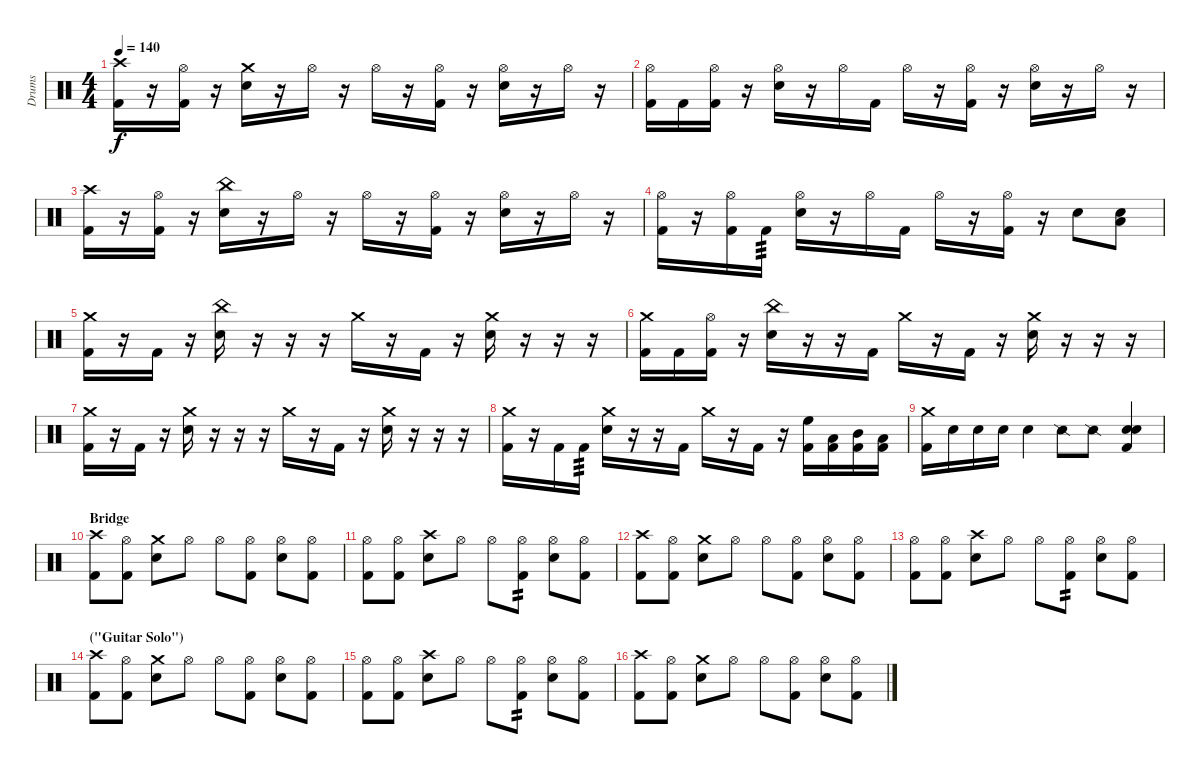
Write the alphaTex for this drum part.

\track ("Drums" "Drums") {instrument percussion}
\staff {score}
\articulation defaults
\ts (4 4)
\tempo 140
\clef neutral
\ks c
("Crash high (hit)" "Kick (hit) 2").16{dy f} r.16 ("Hi-Hat (open)" "Kick (hit) 2").16 r.16 ("Crash medium (hit)" "Snare (hit) 2").16 r.16 "Hi-Hat (open)".16 r.16 "Hi-Hat (open)".16 r.16 ("Hi-Hat (open)" "Kick (hit) 2").16 r.16 ("Hi-Hat (open)" "Snare (hit) 2").16 r.16 "Hi-Hat (open)".16 r.16 |
("Hi-Hat (open)" "Kick (hit) 2").16 "Kick (hit) 2".16 ("Hi-Hat (open)" "Kick (hit) 2").16 r.16 ("Hi-Hat (open)" "Snare (hit) 2").16 r.16 "Hi-Hat (open)".16 "Kick (hit) 2".16 "Hi-Hat (open)".16 r.16 ("Hi-Hat (open)" "Kick (hit) 2").16 r.16 ("Hi-Hat (open)" "Snare (hit) 2").16 r.16 "Hi-Hat (open)".16 r.16 |
("Crash high (hit)" "Kick (hit) 2").16 r.16 ("Hi-Hat (open)" "Kick (hit) 2").16 r.16 ("China (hit)" "Snare (hit) 2").16 r.16 "Hi-Hat (open)".16 r.16 "Hi-Hat (open)".16 r.16 ("Hi-Hat (open)" "Kick (hit) 2").16 r.16 ("Hi-Hat (open)" "Snare (hit) 2").16 r.16 "Hi-Hat (open)".16 r.16 |
("Hi-Hat (open)" "Kick (hit) 2").16 r.16 ("Hi-Hat (open)" "Kick (hit) 2").16 "Kick (hit) 2".16{tp 3} ("Hi-Hat (open)" "Snare (hit) 2").16 r.16 "Hi-Hat (open)".16 "Kick (hit) 2".16 "Hi-Hat (open)".16 r.16 ("Hi-Hat (open)" "Kick (hit) 2").16 r.16 "Snare (hit) 2".8 ("Snare (hit) 2" "Low Tom (hit)").8 |
("Crash medium (hit)" "Kick (hit) 2").16 r.16 "Kick (hit) 2".16 r.16 ("China (hit)" "Snare (hit) 2").16 r.16 r.16 r.16 "Crash medium (hit)".16 r.16 "Kick (hit) 2".16 r.16 ("Crash medium (hit)" "Snare (hit) 2").16 r.16 r.16 r.16 |
("Crash medium (hit)" "Kick (hit) 2").16 "Kick (hit) 2".16 ("Hi-Hat (open)" "Kick (hit) 2").16 r.16 ("China (hit)" "Snare (hit) 2").16 r.16 r.16 "Kick (hit) 2".16 "Crash medium (hit)".16 r.16 "Kick (hit) 2".16 r.16 ("Crash medium (hit)" "Snare (hit) 2").16 r.16 r.16 r.16 |
("Crash medium (hit)" "Kick (hit) 2").16 r.16 "Kick (hit) 2".16 r.16 ("Crash medium (hit)" "Snare (hit) 2").16 r.16 r.16 r.16 "Crash medium (hit)".16 r.16 "Kick (hit) 2".16 r.16 ("Crash medium (hit)" "Snare (hit) 2").16 r.16 r.16 r.16 |
("Crash medium (hit)" "Kick (hit) 2").16 r.16 "Kick (hit) 2".16 "Kick (hit) 2".16{tp 3} ("Crash medium (hit)" "Snare (hit) 2").16 r.16 r.16 "Kick (hit) 2".16 "Crash medium (hit)".16 r.16 "Kick (hit) 2".16 r.16 ("High Floor Tom (hit)" "Kick (hit) 2").16 ("Low Tom (hit)" "Kick (hit) 2").16 ("Mid Tom (hit)" "Kick (hit) 2").16 ("Low Floor Tom (hit)" "Kick (hit) 2").16 |
("Crash medium (hit)" "Kick (hit) 2").16 "Snare (hit) 2".16 "Snare (hit) 2".16 "Snare (hit) 2".16 "Snare (hit) 2".4 "Snare (side stick) 2".8 "Snare (side stick) 2".8 ("Snare (hit) 2" "Snare (hit) 2" "Kick (hit) 2").4 |
\section ("" "Bridge")
("Crash high (hit)" "Kick (hit) 2").8 ("Hi-Hat (open)" "Kick (hit) 2").8 ("Crash medium (hit)" "Snare (hit) 2").8 "Hi-Hat (open)".8 "Hi-Hat (open)".8 ("Hi-Hat (open)" "Kick (hit) 2").8 ("Hi-Hat (open)" "Snare (hit) 2").8 ("Hi-Hat (open)" "Kick (hit) 2").8 |
("Hi-Hat (open)" "Kick (hit) 2").8 ("Hi-Hat (open)" "Kick (hit) 2").8 ("Crash high (hit)" "Snare (hit) 2").8 "Hi-Hat (open)".8 "Hi-Hat (open)".8 ("Hi-Hat (open)" "Kick (hit) 2").8{tp 2} ("Hi-Hat (open)" "Snare (hit) 2").8 ("Hi-Hat (open)" "Kick (hit) 2").8 |
("Crash high (hit)" "Kick (hit) 2").8 ("Hi-Hat (open)" "Kick (hit) 2").8 ("Crash medium (hit)" "Snare (hit) 2").8 "Hi-Hat (open)".8 "Hi-Hat (open)".8 ("Hi-Hat (open)" "Kick (hit) 2").8 ("Hi-Hat (open)" "Snare (hit) 2").8 ("Hi-Hat (open)" "Kick (hit) 2").8 |
("Hi-Hat (open)" "Kick (hit) 2").8 ("Hi-Hat (open)" "Kick (hit) 2").8 ("Crash high (hit)" "Snare (hit) 2").8 "Hi-Hat (open)".8 "Hi-Hat (open)".8 ("Hi-Hat (open)" "Kick (hit) 2").8{tp 2} ("Hi-Hat (open)" "Snare (hit) 2").8 ("Hi-Hat (open)" "Kick (hit) 2").8 |
\section ("" "(\"Guitar Solo\")")
("Crash high (hit)" "Kick (hit) 2").8 ("Hi-Hat (open)" "Kick (hit) 2").8 ("Crash medium (hit)" "Snare (hit) 2").8 "Hi-Hat (open)".8 "Hi-Hat (open)".8 ("Hi-Hat (open)" "Kick (hit) 2").8 ("Hi-Hat (open)" "Snare (hit) 2").8 ("Hi-Hat (open)" "Kick (hit) 2").8 |
("Hi-Hat (open)" "Kick (hit) 2").8 ("Hi-Hat (open)" "Kick (hit) 2").8 ("Crash high (hit)" "Snare (hit) 2").8 "Hi-Hat (open)".8 "Hi-Hat (open)".8 ("Hi-Hat (open)" "Kick (hit) 2").8{tp 2} ("Hi-Hat (open)" "Snare (hit) 2").8 ("Hi-Hat (open)" "Kick (hit) 2").8 |
("Crash high (hit)" "Kick (hit) 2").8 ("Hi-Hat (open)" "Kick (hit) 2").8 ("Crash medium (hit)" "Snare (hit) 2").8 "Hi-Hat (open)".8 "Hi-Hat (open)".8 ("Hi-Hat (open)" "Kick (hit) 2").8 ("Hi-Hat (open)" "Snare (hit) 2").8 ("Hi-Hat (open)" "Kick (hit) 2").8
